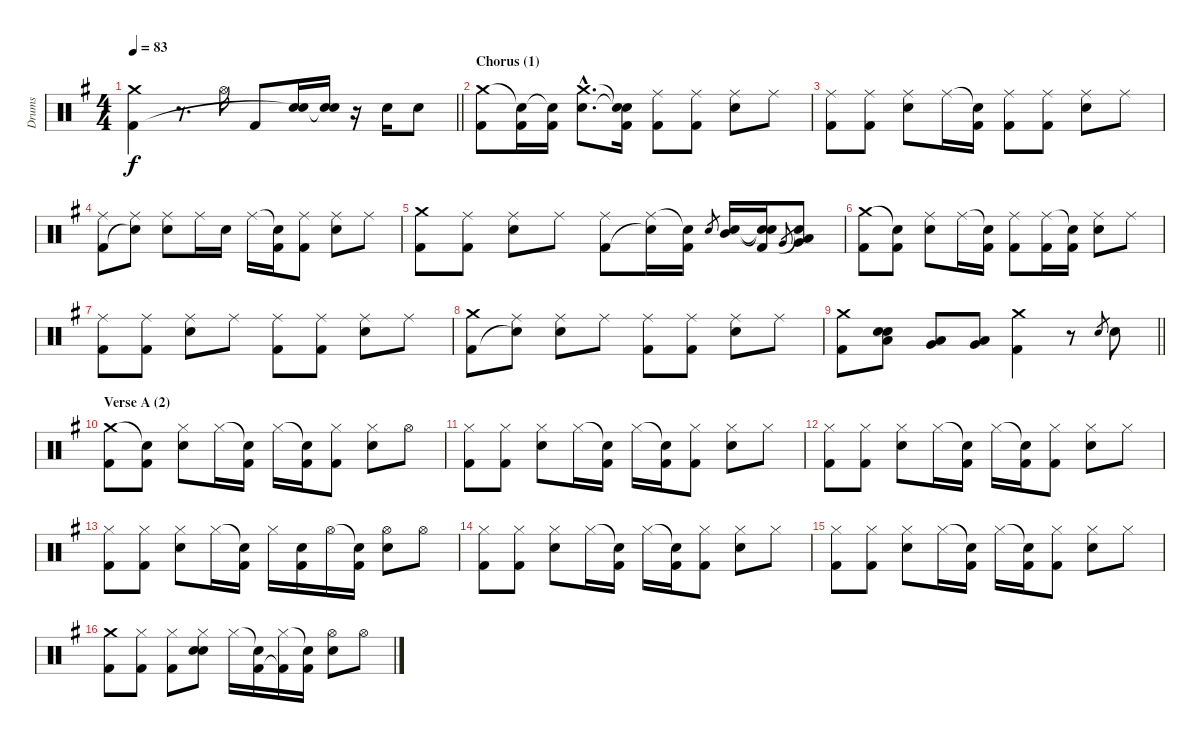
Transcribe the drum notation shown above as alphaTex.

\track ("Drums" "Drums") {instrument percussion}
\staff {score}
\articulation defaults
\ts (4 4)
\tempo 83
\clef neutral
\barLineRight lightlight
\ks eminor
("Crash medium (hit)" "Kick (hit) 2").4{dy f} r.8{d} "Hi-Hat (open)".16 "Kick (hit) 2".8 ("Electric Snare (hit)" "Snare (hit)"{t}).16 ("Electric Snare (hit)" "Snare (hit)"{t}).16 r.16 "Electric Snare (hit)".16 "Electric Snare (hit)".8 |
\section ("" "Chorus (1)")
("Crash medium (hit)" "Kick (hit) 2").8 ("Snare (hit)"{t} "Kick (hit) 2").16 ("Snare (hit)"{t} "Kick (hit) 2").16 ("Crash medium (hit)"{hac} "Electric Snare (hit)"{hac}).8{d} ("Snare (hit)"{t} "Snare (hit)"{t} "Kick (hit) 2").16 ("Ride (middle)" "Kick (hit) 2").8 ("Ride (middle)" "Kick (hit) 2").8 ("Ride (middle)" "Electric Snare (hit)").8 "Ride (middle)".8 |
("Ride (middle)" "Kick (hit) 2").8 ("Ride (middle)" "Kick (hit) 2").8 ("Ride (middle)" "Electric Snare (hit)").8 "Ride (middle)".16 ("Snare (hit)"{t} "Kick (hit) 2").16 ("Ride (middle)" "Kick (hit) 2").8 ("Ride (middle)" "Kick (hit) 2").8 ("Ride (middle)" "Electric Snare (hit)").8 "Ride (middle)".8 |
("Ride (middle)" "Kick (hit) 2").8 ("Ride (middle)" "Snare (hit)"{t}).8 ("Ride (middle)" "Electric Snare (hit)").8 "Ride (middle)".16 "Electric Snare (hit)".16 "Ride (middle)".16 ("Snare (hit)"{t} "Kick (hit) 2").16 ("Ride (middle)" "Kick (hit) 2").8 ("Ride (middle)" "Electric Snare (hit)").8 "Ride (middle)".8 |
("Crash medium (hit)" "Kick (hit) 2").8 ("Ride (middle)" "Kick (hit) 2").8 ("Ride (middle)" "Electric Snare (hit)").8 "Ride (middle)".8 ("Ride (middle)" "Kick (hit) 2").8 ("Ride (middle)" "Snare (hit)"{t}).16 ("Snare (hit)"{t} "Kick (hit) 2").16 "Electric Snare (hit)".8{gr} ("Electric Snare (hit)" "Mid Tom (hit)").16 ("Snare (hit)"{t} "Snare (hit)"{t} "Kick (hit) 2").16 "Very Low Tom (hit)".8{gr} ("Very Low Tom (hit)" "Low Floor Tom (hit)" "Snare (hit)"{t}).8 |
("Crash medium (hit)" "Kick (hit) 2").8 ("Snare (hit)"{t} "Kick (hit) 2").8 ("Ride (middle)" "Electric Snare (hit)").8 "Ride (middle)".16 ("Snare (hit)"{t} "Kick (hit) 2").16 ("Ride (middle)" "Kick (hit) 2").8 ("Ride (middle)" "Kick (hit) 2").16 ("Snare (hit)"{t} "Kick (hit) 2").16 ("Ride (middle)" "Electric Snare (hit)").8 "Ride (middle)".8 |
("Ride (middle)" "Kick (hit) 2").8 ("Ride (middle)" "Kick (hit) 2").8 ("Ride (middle)" "Electric Snare (hit)").8 "Ride (middle)".8 ("Ride (middle)" "Kick (hit) 2").8 ("Ride (middle)" "Kick (hit) 2").8 ("Ride (middle)" "Electric Snare (hit)").8 "Ride (middle)".8 |
("Crash medium (hit)" "Kick (hit) 2").8 ("Ride (middle)" "Snare (hit)"{t}).8 ("Ride (middle)" "Electric Snare (hit)").8 "Ride (middle)".8 ("Ride (middle)" "Kick (hit) 2").8 ("Ride (middle)" "Kick (hit) 2").8 ("Ride (middle)" "Electric Snare (hit)").8 "Ride (middle)".8 |
\barLineRight lightlight
("Crash medium (hit)" "Kick (hit) 2").8 ("Electric Snare (hit)" "Low Floor Tom (hit)" "Snare (hit)").8 ("Very Low Tom (hit)" "Low Floor Tom (hit)").8 ("Very Low Tom (hit)" "Low Floor Tom (hit)").8 ("Crash medium (hit)" "Kick (hit) 2").4 r.8 "Electric Snare (hit)".8{gr} "Electric Snare (hit)".8 |
\section ("" "Verse A (2)")
("Crash medium (hit)" "Kick (hit) 2").8 ("Snare (hit)"{t} "Kick (hit) 2").8 ("Hi-Hat (closed)" "Electric Snare (hit)").8 "Hi-Hat (closed)".16 ("Snare (hit)"{t} "Kick (hit) 2").16 "Hi-Hat (closed)".16 ("Snare (hit)"{t} "Kick (hit) 2").16 ("Hi-Hat (closed)" "Kick (hit) 2").8 ("Hi-Hat (closed)" "Electric Snare (hit)").8 "Hi-Hat (open)".8 |
("Hi-Hat (closed)" "Kick (hit) 2").8 ("Hi-Hat (closed)" "Kick (hit) 2").8 ("Hi-Hat (closed)" "Electric Snare (hit)").8 "Hi-Hat (closed)".16 ("Snare (hit)"{t} "Kick (hit) 2").16 "Hi-Hat (closed)".16 ("Snare (hit)"{t} "Kick (hit) 2").16 ("Hi-Hat (closed)" "Kick (hit) 2").8 ("Hi-Hat (closed)" "Electric Snare (hit)").8 "Hi-Hat (closed)".8 |
("Hi-Hat (closed)" "Kick (hit) 2").8 ("Hi-Hat (closed)" "Kick (hit) 2").8 ("Hi-Hat (closed)" "Electric Snare (hit)").8 "Hi-Hat (closed)".16 ("Snare (hit)"{t} "Kick (hit) 2").16 "Hi-Hat (closed)".16 ("Snare (hit)"{t} "Kick (hit) 2").16 ("Hi-Hat (closed)" "Kick (hit) 2").8 ("Hi-Hat (closed)" "Electric Snare (hit)").8 "Hi-Hat (closed)".8 |
("Hi-Hat (closed)" "Kick (hit) 2").8 ("Hi-Hat (closed)" "Kick (hit) 2").8 ("Hi-Hat (closed)" "Electric Snare (hit)").8 "Hi-Hat (closed)".16 ("Snare (hit)"{t} "Kick (hit) 2").16 "Hi-Hat (closed)".16 ("Electric Snare (hit)" "Kick (hit) 2").16 "Hi-Hat (open)".16 ("Snare (hit)"{t} "Kick (hit) 2").16 ("Hi-Hat (open)" "Electric Snare (hit)").8 "Hi-Hat (open)".8 |
("Hi-Hat (closed)" "Kick (hit) 2").8 ("Hi-Hat (closed)" "Kick (hit) 2").8 ("Hi-Hat (closed)" "Electric Snare (hit)").8 "Hi-Hat (closed)".16 ("Snare (hit)"{t} "Kick (hit) 2").16 "Hi-Hat (closed)".16 ("Snare (hit)"{t} "Kick (hit) 2").16 ("Hi-Hat (closed)" "Kick (hit) 2").8 ("Hi-Hat (closed)" "Electric Snare (hit)").8 "Hi-Hat (closed)".8 |
("Hi-Hat (closed)" "Kick (hit) 2").8 ("Hi-Hat (closed)" "Kick (hit) 2").8 ("Hi-Hat (closed)" "Electric Snare (hit)").8 "Hi-Hat (closed)".16 ("Snare (hit)"{t} "Kick (hit) 2").16 "Hi-Hat (closed)".16 ("Snare (hit)"{t} "Kick (hit) 2").16 ("Hi-Hat (closed)" "Kick (hit) 2").8 ("Hi-Hat (closed)" "Electric Snare (hit)").8 "Hi-Hat (closed)".8 |
("Crash medium (hit)" "Kick (hit) 2").8 ("Hi-Hat (closed)" "Kick (hit) 2").8 ("Hi-Hat (closed)" "Kick (hit) 2").8 ("Hi-Hat (closed)" "Electric Snare (hit)" "Snare (hit)").8 "Hi-Hat (closed)".16 ("Snare (hit)"{t} "Kick (hit) 2").16 ("Hi-Hat (closed)" "Kick (hit) 2"{t}).16 ("Snare (hit)"{t} "Kick (hit) 2").16 ("Hi-Hat (open)" "Electric Snare (hit)").8 "Hi-Hat (open)".8
